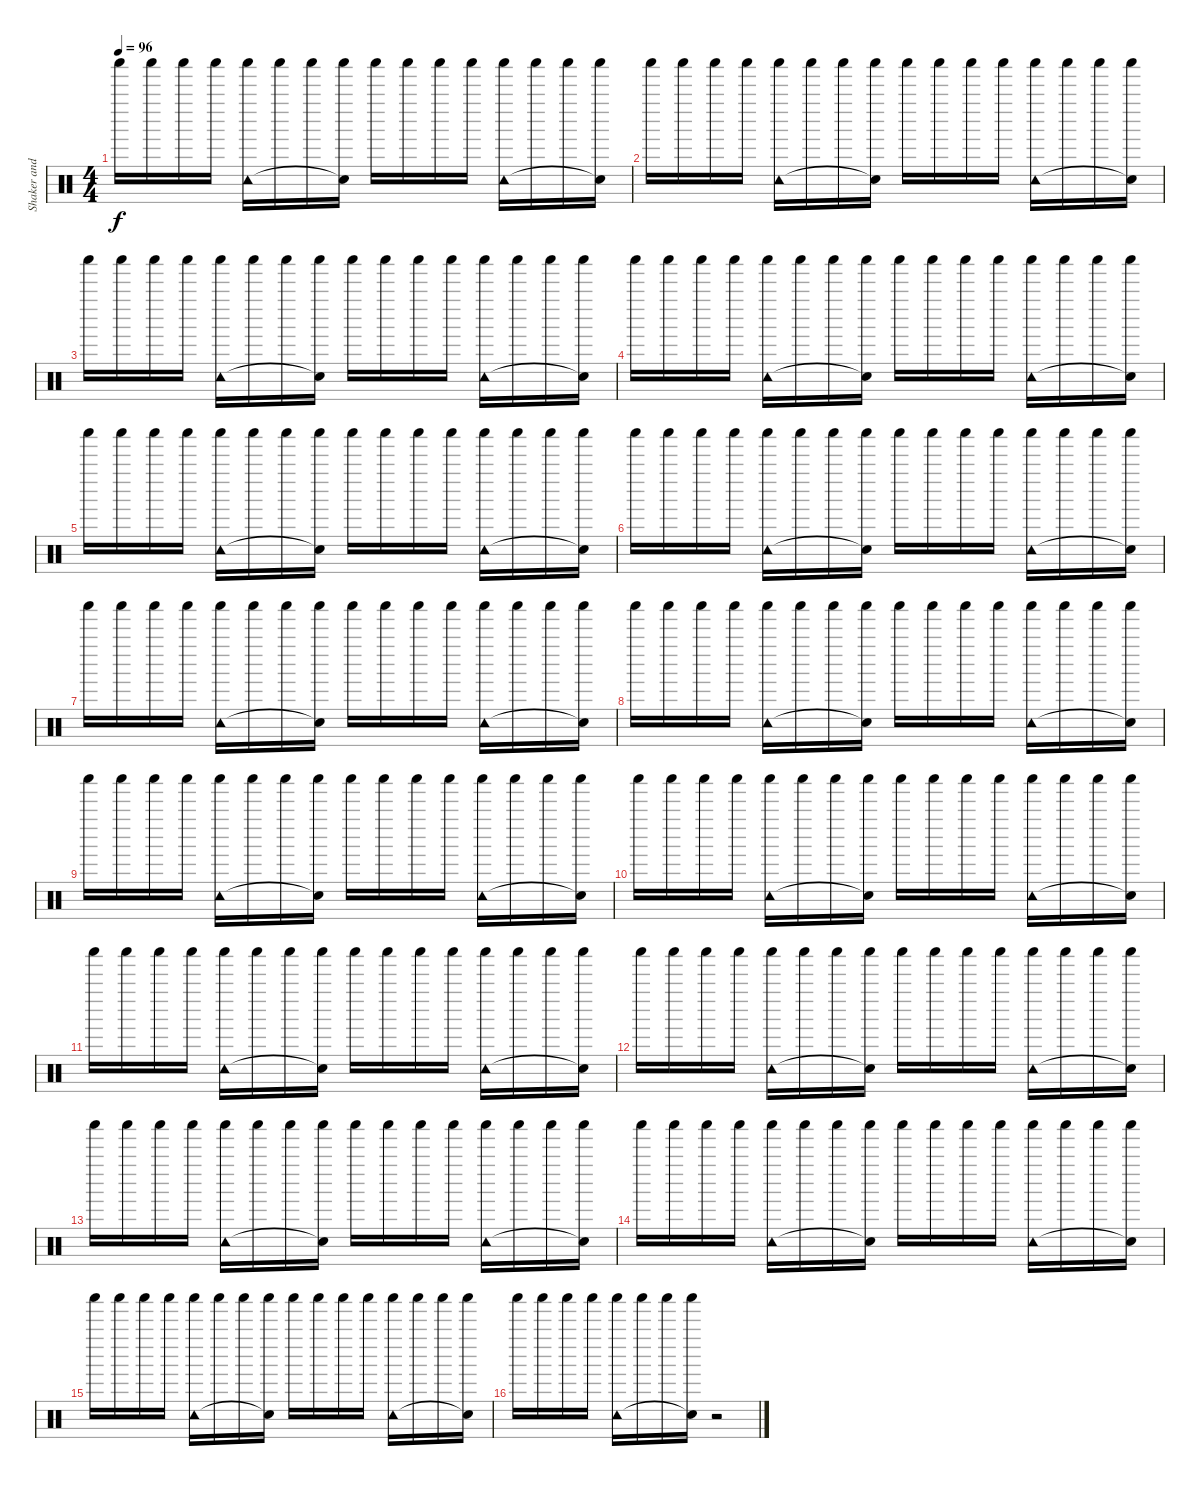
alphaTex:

\track ("Shaker and Tambourine" "Shaker and") {instrument percussion}
\staff {score}
\articulation defaults
\ts (4 4)
\tempo 96
\clef neutral
\ks c "Shaker (hit)".16{dy f} "Shaker (hit)".16 "Shaker (hit)".16 "Shaker (hit)".16
("Shaker (hit)" "Tambourine (hit)").16 "Shaker (hit)".16 "Shaker (hit)".16 ("Shaker (hit)" "Snare (hit)"{t}).16 "Shaker (hit)".16 "Shaker (hit)".16 "Shaker (hit)".16 "Shaker (hit)".16 ("Shaker (hit)" "Tambourine (hit)").16 "Shaker (hit)".16 "Shaker (hit)".16 ("Shaker (hit)" "Snare (hit)"{t}).16 |
"Shaker (hit)".16 "Shaker (hit)".16 "Shaker (hit)".16 "Shaker (hit)".16 ("Shaker (hit)" "Tambourine (hit)").16 "Shaker (hit)".16 "Shaker (hit)".16 ("Shaker (hit)" "Snare (hit)"{t}).16 "Shaker (hit)".16 "Shaker (hit)".16 "Shaker (hit)".16 "Shaker (hit)".16 ("Shaker (hit)" "Tambourine (hit)").16 "Shaker (hit)".16 "Shaker (hit)".16 ("Shaker (hit)" "Snare (hit)"{t}).16 |
"Shaker (hit)".16 "Shaker (hit)".16 "Shaker (hit)".16 "Shaker (hit)".16 ("Shaker (hit)" "Tambourine (hit)").16 "Shaker (hit)".16 "Shaker (hit)".16 ("Shaker (hit)" "Snare (hit)"{t}).16 "Shaker (hit)".16 "Shaker (hit)".16 "Shaker (hit)".16 "Shaker (hit)".16 ("Shaker (hit)" "Tambourine (hit)").16 "Shaker (hit)".16 "Shaker (hit)".16 ("Shaker (hit)" "Snare (hit)"{t}).16 |
"Shaker (hit)".16 "Shaker (hit)".16 "Shaker (hit)".16 "Shaker (hit)".16 ("Shaker (hit)" "Tambourine (hit)").16 "Shaker (hit)".16 "Shaker (hit)".16 ("Shaker (hit)" "Snare (hit)"{t}).16 "Shaker (hit)".16 "Shaker (hit)".16 "Shaker (hit)".16 "Shaker (hit)".16 ("Shaker (hit)" "Tambourine (hit)").16 "Shaker (hit)".16 "Shaker (hit)".16 ("Shaker (hit)" "Snare (hit)"{t}).16 |
"Shaker (hit)".16 "Shaker (hit)".16 "Shaker (hit)".16 "Shaker (hit)".16 ("Shaker (hit)" "Tambourine (hit)").16 "Shaker (hit)".16 "Shaker (hit)".16 ("Shaker (hit)" "Snare (hit)"{t}).16 "Shaker (hit)".16 "Shaker (hit)".16 "Shaker (hit)".16 "Shaker (hit)".16 ("Shaker (hit)" "Tambourine (hit)").16 "Shaker (hit)".16 "Shaker (hit)".16 ("Shaker (hit)" "Snare (hit)"{t}).16 |
"Shaker (hit)".16 "Shaker (hit)".16 "Shaker (hit)".16 "Shaker (hit)".16 ("Shaker (hit)" "Tambourine (hit)").16 "Shaker (hit)".16 "Shaker (hit)".16 ("Shaker (hit)" "Snare (hit)"{t}).16 "Shaker (hit)".16 "Shaker (hit)".16 "Shaker (hit)".16 "Shaker (hit)".16 ("Shaker (hit)" "Tambourine (hit)").16 "Shaker (hit)".16 "Shaker (hit)".16 ("Shaker (hit)" "Snare (hit)"{t}).16 |
"Shaker (hit)".16 "Shaker (hit)".16 "Shaker (hit)".16 "Shaker (hit)".16 ("Shaker (hit)" "Tambourine (hit)").16 "Shaker (hit)".16 "Shaker (hit)".16 ("Shaker (hit)" "Snare (hit)"{t}).16 "Shaker (hit)".16 "Shaker (hit)".16 "Shaker (hit)".16 "Shaker (hit)".16 ("Shaker (hit)" "Tambourine (hit)").16 "Shaker (hit)".16 "Shaker (hit)".16 ("Shaker (hit)" "Snare (hit)"{t}).16 |
"Shaker (hit)".16 "Shaker (hit)".16 "Shaker (hit)".16 "Shaker (hit)".16 ("Shaker (hit)" "Tambourine (hit)").16 "Shaker (hit)".16 "Shaker (hit)".16 ("Shaker (hit)" "Snare (hit)"{t}).16 "Shaker (hit)".16 "Shaker (hit)".16 "Shaker (hit)".16 "Shaker (hit)".16 ("Shaker (hit)" "Tambourine (hit)").16 "Shaker (hit)".16 "Shaker (hit)".16 ("Shaker (hit)" "Snare (hit)"{t}).16 |
"Shaker (hit)".16 "Shaker (hit)".16 "Shaker (hit)".16 "Shaker (hit)".16 ("Shaker (hit)" "Tambourine (hit)").16 "Shaker (hit)".16 "Shaker (hit)".16 ("Shaker (hit)" "Snare (hit)"{t}).16 "Shaker (hit)".16 "Shaker (hit)".16 "Shaker (hit)".16 "Shaker (hit)".16 ("Shaker (hit)" "Tambourine (hit)").16 "Shaker (hit)".16 "Shaker (hit)".16 ("Shaker (hit)" "Snare (hit)"{t}).16 |
"Shaker (hit)".16 "Shaker (hit)".16 "Shaker (hit)".16 "Shaker (hit)".16 ("Shaker (hit)" "Tambourine (hit)").16 "Shaker (hit)".16 "Shaker (hit)".16 ("Shaker (hit)" "Snare (hit)"{t}).16 "Shaker (hit)".16 "Shaker (hit)".16 "Shaker (hit)".16 "Shaker (hit)".16 ("Shaker (hit)" "Tambourine (hit)").16 "Shaker (hit)".16 "Shaker (hit)".16 ("Shaker (hit)" "Snare (hit)"{t}).16 |
"Shaker (hit)".16 "Shaker (hit)".16 "Shaker (hit)".16 "Shaker (hit)".16 ("Shaker (hit)" "Tambourine (hit)").16 "Shaker (hit)".16 "Shaker (hit)".16 ("Shaker (hit)" "Snare (hit)"{t}).16 "Shaker (hit)".16 "Shaker (hit)".16 "Shaker (hit)".16 "Shaker (hit)".16 ("Shaker (hit)" "Tambourine (hit)").16 "Shaker (hit)".16 "Shaker (hit)".16 ("Shaker (hit)" "Snare (hit)"{t}).16 |
"Shaker (hit)".16 "Shaker (hit)".16 "Shaker (hit)".16 "Shaker (hit)".16 ("Shaker (hit)" "Tambourine (hit)").16 "Shaker (hit)".16 "Shaker (hit)".16 ("Shaker (hit)" "Snare (hit)"{t}).16 "Shaker (hit)".16 "Shaker (hit)".16 "Shaker (hit)".16 "Shaker (hit)".16 ("Shaker (hit)" "Tambourine (hit)").16 "Shaker (hit)".16 "Shaker (hit)".16 ("Shaker (hit)" "Snare (hit)"{t}).16 |
"Shaker (hit)".16 "Shaker (hit)".16 "Shaker (hit)".16 "Shaker (hit)".16 ("Shaker (hit)" "Tambourine (hit)").16 "Shaker (hit)".16 "Shaker (hit)".16 ("Shaker (hit)" "Snare (hit)"{t}).16 "Shaker (hit)".16 "Shaker (hit)".16 "Shaker (hit)".16 "Shaker (hit)".16 ("Shaker (hit)" "Tambourine (hit)").16 "Shaker (hit)".16 "Shaker (hit)".16 ("Shaker (hit)" "Snare (hit)"{t}).16 |
"Shaker (hit)".16 "Shaker (hit)".16 "Shaker (hit)".16 "Shaker (hit)".16 ("Shaker (hit)" "Tambourine (hit)").16 "Shaker (hit)".16 "Shaker (hit)".16 ("Shaker (hit)" "Snare (hit)"{t}).16 "Shaker (hit)".16 "Shaker (hit)".16 "Shaker (hit)".16 "Shaker (hit)".16 ("Shaker (hit)" "Tambourine (hit)").16 "Shaker (hit)".16 "Shaker (hit)".16 ("Shaker (hit)" "Snare (hit)"{t}).16 |
"Shaker (hit)".16 "Shaker (hit)".16 "Shaker (hit)".16 "Shaker (hit)".16 ("Shaker (hit)" "Tambourine (hit)").16 "Shaker (hit)".16 "Shaker (hit)".16 ("Shaker (hit)" "Snare (hit)"{t}).16 "Shaker (hit)".16 "Shaker (hit)".16 "Shaker (hit)".16 "Shaker (hit)".16 ("Shaker (hit)" "Tambourine (hit)").16 "Shaker (hit)".16 "Shaker (hit)".16 ("Shaker (hit)" "Snare (hit)"{t}).16 |
"Shaker (hit)".16 "Shaker (hit)".16 "Shaker (hit)".16 "Shaker (hit)".16 ("Shaker (hit)" "Tambourine (hit)").16 "Shaker (hit)".16 "Shaker (hit)".16 ("Shaker (hit)" "Snare (hit)"{t}).16 r.2
